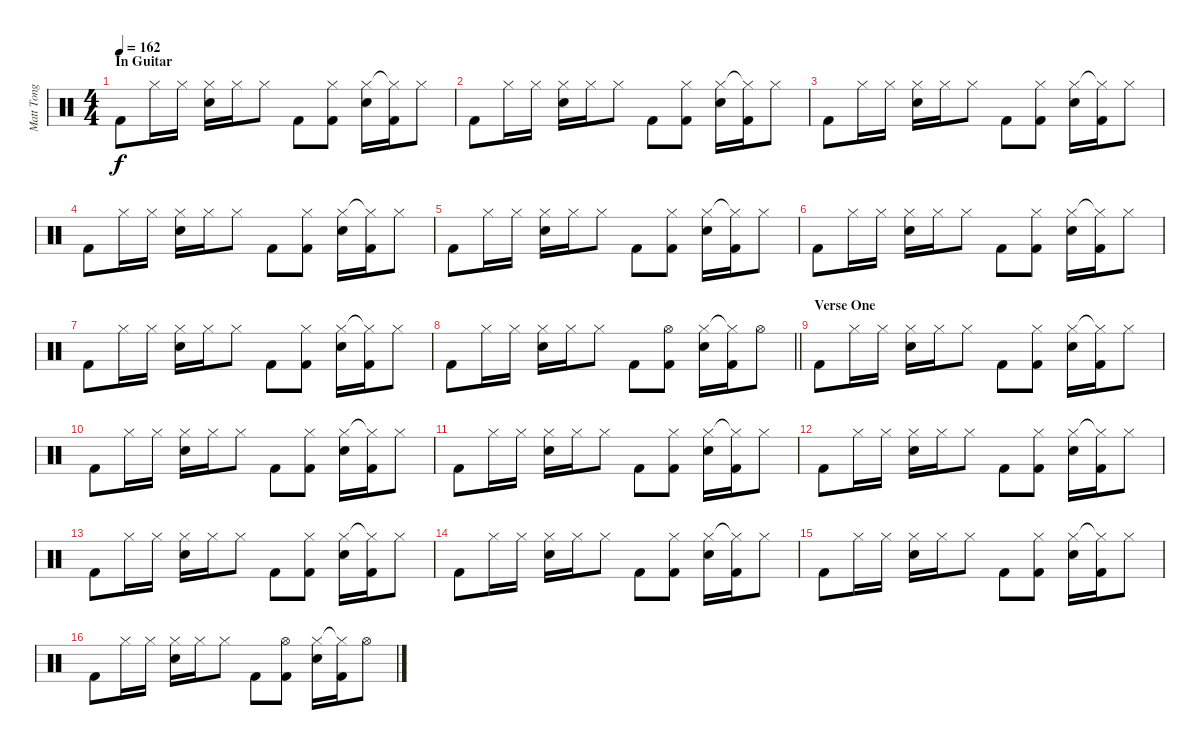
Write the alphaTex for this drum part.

\track ("Matt Tong" "Matt Tong") {instrument percussion}
\staff {score}
\articulation defaults
\ts (4 4)
\section ("" "In Guitar")
\tempo 162
\clef neutral
\ks c "Kick (hit) 2".8{dy f} "Hi-Hat (closed)".16 "Hi-Hat (closed)".16
("Hi-Hat (closed)" "Snare (hit) 2").16 "Hi-Hat (closed)".16 "Hi-Hat (closed)".8 "Kick (hit) 2".8 ("Hi-Hat (closed)" "Kick (hit) 2").8 ("Hi-Hat (closed)" "Snare (hit) 2").16 ("Hi-Hat (closed)"{t} "Kick (hit) 2").16 "Hi-Hat (closed)".8 |
"Kick (hit) 2".8 "Hi-Hat (closed)".16 "Hi-Hat (closed)".16 ("Hi-Hat (closed)" "Snare (hit) 2").16 "Hi-Hat (closed)".16 "Hi-Hat (closed)".8 "Kick (hit) 2".8 ("Hi-Hat (closed)" "Kick (hit) 2").8 ("Hi-Hat (closed)" "Snare (hit) 2").16 ("Hi-Hat (closed)"{t} "Kick (hit) 2").16 "Hi-Hat (closed)".8 |
"Kick (hit) 2".8 "Hi-Hat (closed)".16 "Hi-Hat (closed)".16 ("Hi-Hat (closed)" "Snare (hit) 2").16 "Hi-Hat (closed)".16 "Hi-Hat (closed)".8 "Kick (hit) 2".8 ("Hi-Hat (closed)" "Kick (hit) 2").8 ("Hi-Hat (closed)" "Snare (hit) 2").16 ("Hi-Hat (closed)"{t} "Kick (hit) 2").16 "Hi-Hat (closed)".8 |
"Kick (hit) 2".8 "Hi-Hat (closed)".16 "Hi-Hat (closed)".16 ("Hi-Hat (closed)" "Snare (hit) 2").16 "Hi-Hat (closed)".16 "Hi-Hat (closed)".8 "Kick (hit) 2".8 ("Hi-Hat (closed)" "Kick (hit) 2").8 ("Hi-Hat (closed)" "Snare (hit) 2").16 ("Hi-Hat (closed)"{t} "Kick (hit) 2").16 "Hi-Hat (closed)".8 |
"Kick (hit) 2".8 "Hi-Hat (closed)".16 "Hi-Hat (closed)".16 ("Hi-Hat (closed)" "Snare (hit) 2").16 "Hi-Hat (closed)".16 "Hi-Hat (closed)".8 "Kick (hit) 2".8 ("Hi-Hat (closed)" "Kick (hit) 2").8 ("Hi-Hat (closed)" "Snare (hit) 2").16 ("Hi-Hat (closed)"{t} "Kick (hit) 2").16 "Hi-Hat (closed)".8 |
"Kick (hit) 2".8 "Hi-Hat (closed)".16 "Hi-Hat (closed)".16 ("Hi-Hat (closed)" "Snare (hit) 2").16 "Hi-Hat (closed)".16 "Hi-Hat (closed)".8 "Kick (hit) 2".8 ("Hi-Hat (closed)" "Kick (hit) 2").8 ("Hi-Hat (closed)" "Snare (hit) 2").16 ("Hi-Hat (closed)"{t} "Kick (hit) 2").16 "Hi-Hat (closed)".8 |
"Kick (hit) 2".8 "Hi-Hat (closed)".16 "Hi-Hat (closed)".16 ("Hi-Hat (closed)" "Snare (hit) 2").16 "Hi-Hat (closed)".16 "Hi-Hat (closed)".8 "Kick (hit) 2".8 ("Hi-Hat (closed)" "Kick (hit) 2").8 ("Hi-Hat (closed)" "Snare (hit) 2").16 ("Hi-Hat (closed)"{t} "Kick (hit) 2").16 "Hi-Hat (closed)".8 |
\barLineRight lightlight "Kick (hit) 2".8 "Hi-Hat (closed)".16 "Hi-Hat (closed)".16
("Hi-Hat (closed)" "Snare (hit) 2").16 "Hi-Hat (closed)".16 "Hi-Hat (closed)".8 "Kick (hit) 2".8 ("Hi-Hat (open)" "Kick (hit) 2").8 ("Hi-Hat (closed)" "Snare (hit) 2").16 ("Hi-Hat (closed)"{t} "Kick (hit) 2").16 "Hi-Hat (open)".8 |
\section ("" "Verse One")
"Kick (hit) 2".8 "Hi-Hat (closed)".16 "Hi-Hat (closed)".16 ("Hi-Hat (closed)" "Snare (hit) 2").16 "Hi-Hat (closed)".16 "Hi-Hat (closed)".8 "Kick (hit) 2".8 ("Hi-Hat (closed)" "Kick (hit) 2").8 ("Hi-Hat (closed)" "Snare (hit) 2").16 ("Hi-Hat (closed)"{t} "Kick (hit) 2").16 "Hi-Hat (closed)".8 |
"Kick (hit) 2".8 "Hi-Hat (closed)".16 "Hi-Hat (closed)".16 ("Hi-Hat (closed)" "Snare (hit) 2").16 "Hi-Hat (closed)".16 "Hi-Hat (closed)".8 "Kick (hit) 2".8 ("Hi-Hat (closed)" "Kick (hit) 2").8 ("Hi-Hat (closed)" "Snare (hit) 2").16 ("Hi-Hat (closed)"{t} "Kick (hit) 2").16 "Hi-Hat (closed)".8 |
"Kick (hit) 2".8 "Hi-Hat (closed)".16 "Hi-Hat (closed)".16 ("Hi-Hat (closed)" "Snare (hit) 2").16 "Hi-Hat (closed)".16 "Hi-Hat (closed)".8 "Kick (hit) 2".8 ("Hi-Hat (closed)" "Kick (hit) 2").8 ("Hi-Hat (closed)" "Snare (hit) 2").16 ("Hi-Hat (closed)"{t} "Kick (hit) 2").16 "Hi-Hat (closed)".8 |
"Kick (hit) 2".8 "Hi-Hat (closed)".16 "Hi-Hat (closed)".16 ("Hi-Hat (closed)" "Snare (hit) 2").16 "Hi-Hat (closed)".16 "Hi-Hat (closed)".8 "Kick (hit) 2".8 ("Hi-Hat (closed)" "Kick (hit) 2").8 ("Hi-Hat (closed)" "Snare (hit) 2").16 ("Hi-Hat (closed)"{t} "Kick (hit) 2").16 "Hi-Hat (closed)".8 |
"Kick (hit) 2".8 "Hi-Hat (closed)".16 "Hi-Hat (closed)".16 ("Hi-Hat (closed)" "Snare (hit) 2").16 "Hi-Hat (closed)".16 "Hi-Hat (closed)".8 "Kick (hit) 2".8 ("Hi-Hat (closed)" "Kick (hit) 2").8 ("Hi-Hat (closed)" "Snare (hit) 2").16 ("Hi-Hat (closed)"{t} "Kick (hit) 2").16 "Hi-Hat (closed)".8 |
"Kick (hit) 2".8 "Hi-Hat (closed)".16 "Hi-Hat (closed)".16 ("Hi-Hat (closed)" "Snare (hit) 2").16 "Hi-Hat (closed)".16 "Hi-Hat (closed)".8 "Kick (hit) 2".8 ("Hi-Hat (closed)" "Kick (hit) 2").8 ("Hi-Hat (closed)" "Snare (hit) 2").16 ("Hi-Hat (closed)"{t} "Kick (hit) 2").16 "Hi-Hat (closed)".8 |
"Kick (hit) 2".8 "Hi-Hat (closed)".16 "Hi-Hat (closed)".16 ("Hi-Hat (closed)" "Snare (hit) 2").16 "Hi-Hat (closed)".16 "Hi-Hat (closed)".8 "Kick (hit) 2".8 ("Hi-Hat (closed)" "Kick (hit) 2").8 ("Hi-Hat (closed)" "Snare (hit) 2").16 ("Hi-Hat (closed)"{t} "Kick (hit) 2").16 "Hi-Hat (closed)".8 |
"Kick (hit) 2".8 "Hi-Hat (closed)".16 "Hi-Hat (closed)".16 ("Hi-Hat (closed)" "Snare (hit) 2").16 "Hi-Hat (closed)".16 "Hi-Hat (closed)".8 "Kick (hit) 2".8 ("Hi-Hat (open)" "Kick (hit) 2").8 ("Hi-Hat (closed)" "Snare (hit) 2").16 ("Hi-Hat (closed)"{t} "Kick (hit) 2").16 "Hi-Hat (open)".8
